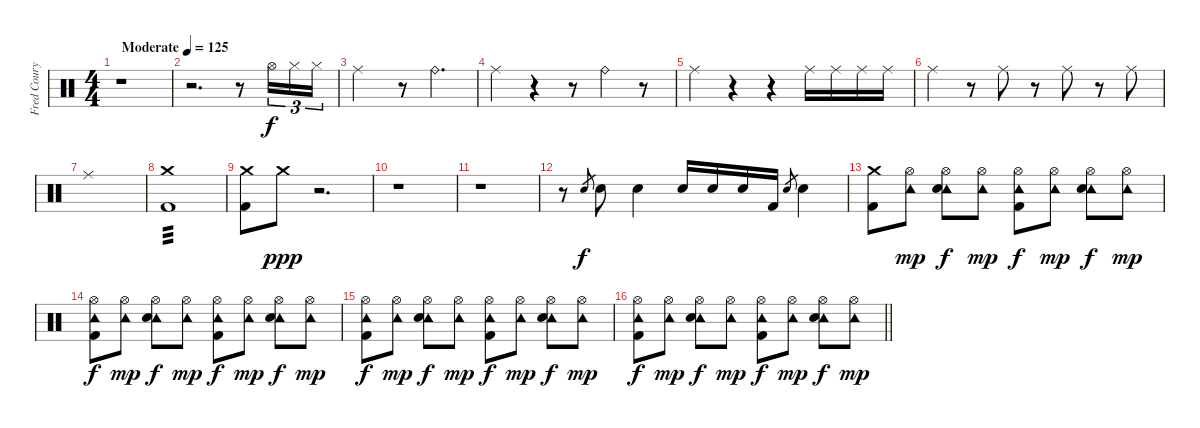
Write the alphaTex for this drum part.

\track ("Fred Coury - Drums" "Fred Coury") {instrument percussion}
\staff {score}
\articulation defaults
\ts (4 4)
\tempo (125 "Moderate")
\clef neutral
\ks c
r.1{dy f} |
r.2{d} r.8 "Hi-Hat (open)".16{tu (3 2)} "Hi-Hat (closed)".16{tu (3 2)} "Hi-Hat (closed)".16{tu (3 2)} |
"Ride (middle)".2 r.8 "Ride (bell)".4{d} |
"Ride (middle)".4 r.4 r.8 "Ride (bell)".4 r.8 |
"Ride (middle)".4 r.4 r.4 "Ride (middle)".16 "Ride (middle)".16 "Ride (middle)".16 "Ride (middle)".16 |
"Ride (middle)".4 r.8 "Ride (middle)".8 r.8 "Ride (middle)".8 r.8 "Ride (middle)".8 |
"Ride (middle)".1 |
("Crash medium (hit)" "Kick (hit) 2").1{tp 3} |
("Crash medium (hit)" "Kick (hit) 2").8 "Crash medium (hit)".8{dy ppp} r.2{d} |
r.1 |
r.1 |
r.8 "Snare (hit) 2".8{gr dy f} "Snare (hit) 2".8 "Snare (hit) 2".4 "Snare (hit) 2".16 "Snare (hit) 2".16 "Snare (hit) 2".16 "Kick (hit) 2".16 "Snare (hit) 2".8{gr} "Snare (hit) 2".4 |
("Crash medium (hit)" "Kick (hit) 2").8 ("Hi-Hat (open)" "Tambourine (hit)").8{dy mp} ("Hi-Hat (open)" "Tambourine (hit)" "Snare (hit) 2").8{dy f} ("Hi-Hat (open)" "Tambourine (hit)").8{dy mp} ("Hi-Hat (open)" "Tambourine (hit)" "Kick (hit) 2").8{dy f} ("Hi-Hat (open)" "Tambourine (hit)").8{dy mp} ("Hi-Hat (open)" "Tambourine (hit)" "Snare (hit) 2").8{dy f} ("Hi-Hat (open)" "Tambourine (hit)").8{dy mp} |
("Hi-Hat (open)" "Tambourine (hit)" "Kick (hit) 2").8{dy f} ("Hi-Hat (open)" "Tambourine (hit)").8{dy mp} ("Hi-Hat (open)" "Tambourine (hit)" "Snare (hit) 2").8{dy f} ("Hi-Hat (open)" "Tambourine (hit)").8{dy mp} ("Hi-Hat (open)" "Tambourine (hit)" "Kick (hit) 2").8{dy f} ("Hi-Hat (open)" "Tambourine (hit)").8{dy mp} ("Hi-Hat (open)" "Tambourine (hit)" "Snare (hit) 2").8{dy f} ("Hi-Hat (open)" "Tambourine (hit)").8{dy mp} |
("Hi-Hat (open)" "Tambourine (hit)" "Kick (hit) 2").8{dy f} ("Hi-Hat (open)" "Tambourine (hit)").8{dy mp} ("Hi-Hat (open)" "Tambourine (hit)" "Snare (hit) 2").8{dy f} ("Hi-Hat (open)" "Tambourine (hit)").8{dy mp} ("Hi-Hat (open)" "Tambourine (hit)" "Kick (hit) 2").8{dy f} ("Hi-Hat (open)" "Tambourine (hit)").8{dy mp} ("Hi-Hat (open)" "Tambourine (hit)" "Snare (hit) 2").8{dy f} ("Hi-Hat (open)" "Tambourine (hit)").8{dy mp} |
\barLineRight lightlight
("Hi-Hat (open)" "Tambourine (hit)" "Kick (hit) 2").8{dy f} ("Hi-Hat (open)" "Tambourine (hit)").8{dy mp} ("Hi-Hat (open)" "Tambourine (hit)" "Snare (hit) 2").8{dy f} ("Hi-Hat (open)" "Tambourine (hit)").8{dy mp} ("Hi-Hat (open)" "Tambourine (hit)" "Kick (hit) 2").8{dy f} ("Hi-Hat (open)" "Tambourine (hit)").8{dy mp} ("Hi-Hat (open)" "Tambourine (hit)" "Snare (hit) 2").8{dy f} ("Hi-Hat (open)" "Tambourine (hit)").8{dy mp}
